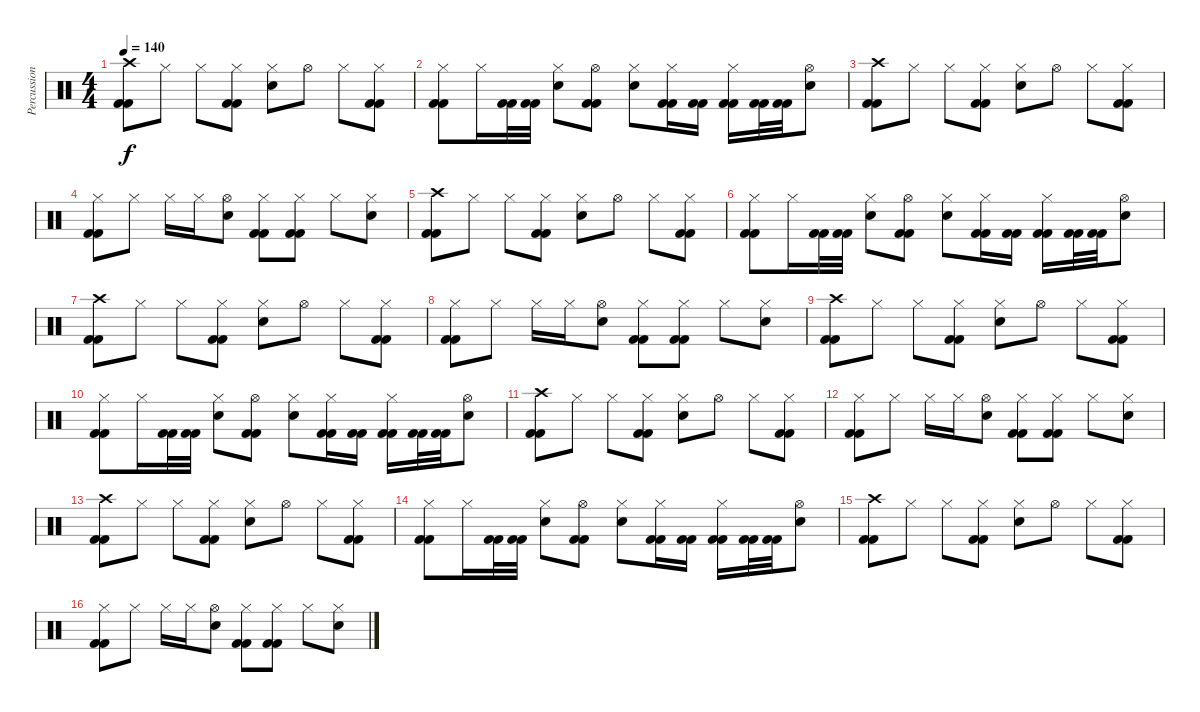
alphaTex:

\track ("Percussions" "Percussion") {instrument percussion}
\staff {score}
\articulation defaults
\ts (4 4)
\tempo 140
\clef neutral
\ks c
("Kick (hit) 2" "Kick (hit) 2" "Crash high (hit)").8{dy f} "Hi-Hat (closed)".8 "Hi-Hat (closed)".8 ("Kick (hit) 2" "Kick (hit) 2" "Hi-Hat (closed)").8 ("Electric Snare (hit)" "Hi-Hat (closed)").8 "Hi-Hat (open)".8 "Hi-Hat (closed)".8 ("Kick (hit) 2" "Kick (hit) 2" "Hi-Hat (closed)").8 |
("Kick (hit) 2" "Kick (hit) 2" "Hi-Hat (closed)").8 "Hi-Hat (closed)".16 ("Kick (hit) 2" "Kick (hit) 2").32 ("Kick (hit) 2" "Kick (hit) 2").32 ("Electric Snare (hit)" "Hi-Hat (closed)").8 ("Kick (hit) 2" "Kick (hit) 2" "Hi-Hat (open)").8 ("Electric Snare (hit)" "Hi-Hat (closed)").8 ("Kick (hit) 2" "Kick (hit) 2" "Hi-Hat (closed)").16 ("Kick (hit) 2" "Kick (hit) 2").16 ("Kick (hit) 2" "Kick (hit) 2" "Hi-Hat (closed)").16 ("Kick (hit) 2" "Kick (hit) 2").32 ("Kick (hit) 2" "Kick (hit) 2").32 ("Electric Snare (hit)" "Hi-Hat (open)").8 |
("Kick (hit) 2" "Kick (hit) 2" "Crash high (hit)").8 "Hi-Hat (closed)".8 "Hi-Hat (closed)".8 ("Kick (hit) 2" "Kick (hit) 2" "Hi-Hat (closed)").8 ("Electric Snare (hit)" "Hi-Hat (closed)").8 "Hi-Hat (open)".8 "Hi-Hat (closed)".8 ("Kick (hit) 2" "Kick (hit) 2" "Hi-Hat (closed)").8 |
("Kick (hit) 2" "Kick (hit) 2" "Hi-Hat (closed)").8 "Hi-Hat (closed)".8 "Hi-Hat (closed)".16 "Hi-Hat (closed)".16 ("Electric Snare (hit)" "Hi-Hat (open)").8 ("Kick (hit) 2" "Kick (hit) 2" "Hi-Hat (closed)").8 ("Kick (hit) 2" "Kick (hit) 2" "Hi-Hat (closed)").8 "Hi-Hat (closed)".8 ("Electric Snare (hit)" "Hi-Hat (closed)").8 |
("Kick (hit) 2" "Kick (hit) 2" "Crash high (hit)").8 "Hi-Hat (closed)".8 "Hi-Hat (closed)".8 ("Kick (hit) 2" "Kick (hit) 2" "Hi-Hat (closed)").8 ("Electric Snare (hit)" "Hi-Hat (closed)").8 "Hi-Hat (open)".8 "Hi-Hat (closed)".8 ("Kick (hit) 2" "Kick (hit) 2" "Hi-Hat (closed)").8 |
("Kick (hit) 2" "Kick (hit) 2" "Hi-Hat (closed)").8 "Hi-Hat (closed)".16 ("Kick (hit) 2" "Kick (hit) 2").32 ("Kick (hit) 2" "Kick (hit) 2").32 ("Electric Snare (hit)" "Hi-Hat (closed)").8 ("Kick (hit) 2" "Kick (hit) 2" "Hi-Hat (open)").8 ("Electric Snare (hit)" "Hi-Hat (closed)").8 ("Kick (hit) 2" "Kick (hit) 2" "Hi-Hat (closed)").16 ("Kick (hit) 2" "Kick (hit) 2").16 ("Kick (hit) 2" "Kick (hit) 2" "Hi-Hat (closed)").16 ("Kick (hit) 2" "Kick (hit) 2").32 ("Kick (hit) 2" "Kick (hit) 2").32 ("Electric Snare (hit)" "Hi-Hat (open)").8 |
("Kick (hit) 2" "Kick (hit) 2" "Crash high (hit)").8 "Hi-Hat (closed)".8 "Hi-Hat (closed)".8 ("Kick (hit) 2" "Kick (hit) 2" "Hi-Hat (closed)").8 ("Electric Snare (hit)" "Hi-Hat (closed)").8 "Hi-Hat (open)".8 "Hi-Hat (closed)".8 ("Kick (hit) 2" "Kick (hit) 2" "Hi-Hat (closed)").8 |
("Kick (hit) 2" "Kick (hit) 2" "Hi-Hat (closed)").8 "Hi-Hat (closed)".8 "Hi-Hat (closed)".16 "Hi-Hat (closed)".16 ("Electric Snare (hit)" "Hi-Hat (open)").8 ("Kick (hit) 2" "Kick (hit) 2" "Hi-Hat (closed)").8 ("Kick (hit) 2" "Kick (hit) 2" "Hi-Hat (closed)").8 "Hi-Hat (closed)".8 ("Electric Snare (hit)" "Hi-Hat (closed)").8 |
("Kick (hit) 2" "Kick (hit) 2" "Crash high (hit)").8 "Hi-Hat (closed)".8 "Hi-Hat (closed)".8 ("Kick (hit) 2" "Kick (hit) 2" "Hi-Hat (closed)").8 ("Electric Snare (hit)" "Hi-Hat (closed)").8 "Hi-Hat (open)".8 "Hi-Hat (closed)".8 ("Kick (hit) 2" "Kick (hit) 2" "Hi-Hat (closed)").8 |
("Kick (hit) 2" "Kick (hit) 2" "Hi-Hat (closed)").8 "Hi-Hat (closed)".16 ("Kick (hit) 2" "Kick (hit) 2").32 ("Kick (hit) 2" "Kick (hit) 2").32 ("Electric Snare (hit)" "Hi-Hat (closed)").8 ("Kick (hit) 2" "Kick (hit) 2" "Hi-Hat (open)").8 ("Electric Snare (hit)" "Hi-Hat (closed)").8 ("Kick (hit) 2" "Kick (hit) 2" "Hi-Hat (closed)").16 ("Kick (hit) 2" "Kick (hit) 2").16 ("Kick (hit) 2" "Kick (hit) 2" "Hi-Hat (closed)").16 ("Kick (hit) 2" "Kick (hit) 2").32 ("Kick (hit) 2" "Kick (hit) 2").32 ("Electric Snare (hit)" "Hi-Hat (open)").8 |
("Kick (hit) 2" "Kick (hit) 2" "Crash high (hit)").8 "Hi-Hat (closed)".8 "Hi-Hat (closed)".8 ("Kick (hit) 2" "Kick (hit) 2" "Hi-Hat (closed)").8 ("Electric Snare (hit)" "Hi-Hat (closed)").8 "Hi-Hat (open)".8 "Hi-Hat (closed)".8 ("Kick (hit) 2" "Kick (hit) 2" "Hi-Hat (closed)").8 |
("Kick (hit) 2" "Kick (hit) 2" "Hi-Hat (closed)").8 "Hi-Hat (closed)".8 "Hi-Hat (closed)".16 "Hi-Hat (closed)".16 ("Electric Snare (hit)" "Hi-Hat (open)").8 ("Kick (hit) 2" "Kick (hit) 2" "Hi-Hat (closed)").8 ("Kick (hit) 2" "Kick (hit) 2" "Hi-Hat (closed)").8 "Hi-Hat (closed)".8 ("Electric Snare (hit)" "Hi-Hat (closed)").8 |
("Kick (hit) 2" "Kick (hit) 2" "Crash high (hit)").8 "Hi-Hat (closed)".8 "Hi-Hat (closed)".8 ("Kick (hit) 2" "Kick (hit) 2" "Hi-Hat (closed)").8 ("Electric Snare (hit)" "Hi-Hat (closed)").8 "Hi-Hat (open)".8 "Hi-Hat (closed)".8 ("Kick (hit) 2" "Kick (hit) 2" "Hi-Hat (closed)").8 |
("Kick (hit) 2" "Kick (hit) 2" "Hi-Hat (closed)").8 "Hi-Hat (closed)".16 ("Kick (hit) 2" "Kick (hit) 2").32 ("Kick (hit) 2" "Kick (hit) 2").32 ("Electric Snare (hit)" "Hi-Hat (closed)").8 ("Kick (hit) 2" "Kick (hit) 2" "Hi-Hat (open)").8 ("Electric Snare (hit)" "Hi-Hat (closed)").8 ("Kick (hit) 2" "Kick (hit) 2" "Hi-Hat (closed)").16 ("Kick (hit) 2" "Kick (hit) 2").16 ("Kick (hit) 2" "Kick (hit) 2" "Hi-Hat (closed)").16 ("Kick (hit) 2" "Kick (hit) 2").32 ("Kick (hit) 2" "Kick (hit) 2").32 ("Electric Snare (hit)" "Hi-Hat (open)").8 |
("Kick (hit) 2" "Kick (hit) 2" "Crash high (hit)").8 "Hi-Hat (closed)".8 "Hi-Hat (closed)".8 ("Kick (hit) 2" "Kick (hit) 2" "Hi-Hat (closed)").8 ("Electric Snare (hit)" "Hi-Hat (closed)").8 "Hi-Hat (open)".8 "Hi-Hat (closed)".8 ("Kick (hit) 2" "Kick (hit) 2" "Hi-Hat (closed)").8 |
("Kick (hit) 2" "Kick (hit) 2" "Hi-Hat (closed)").8 "Hi-Hat (closed)".8 "Hi-Hat (closed)".16 "Hi-Hat (closed)".16 ("Electric Snare (hit)" "Hi-Hat (open)").8 ("Kick (hit) 2" "Kick (hit) 2" "Hi-Hat (closed)").8 ("Kick (hit) 2" "Kick (hit) 2" "Hi-Hat (closed)").8 "Hi-Hat (closed)".8 ("Electric Snare (hit)" "Hi-Hat (closed)").8
